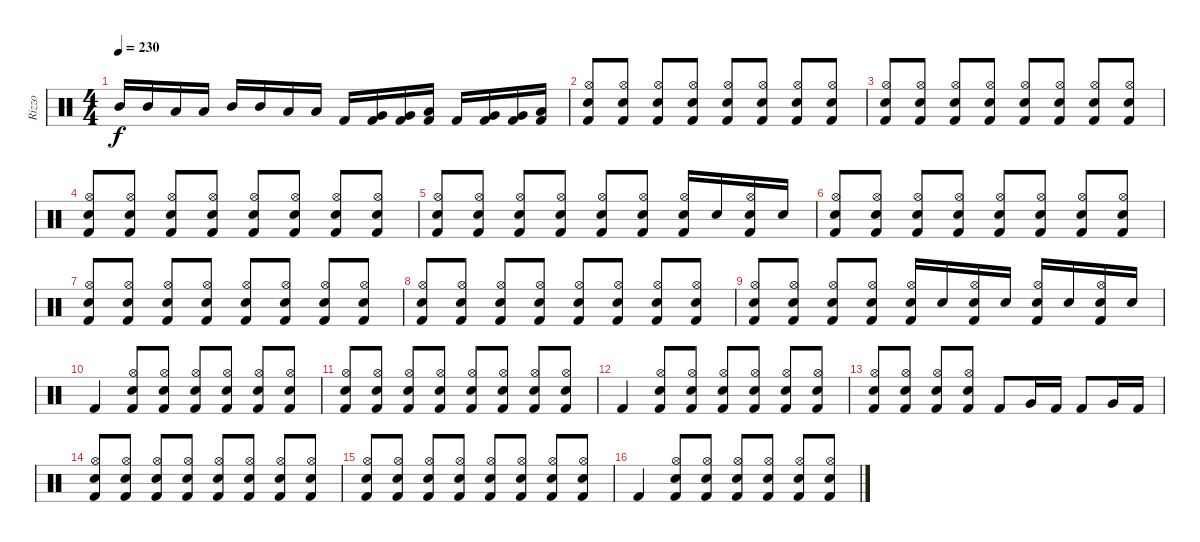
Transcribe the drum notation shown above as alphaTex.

\track ("Rizzo" "Rizzo") {instrument percussion}
\staff {score}
\articulation defaults
\ts (4 4)
\tempo 230
\clef neutral
\ks c "Mid Tom (hit)".16{dy f} "Mid Tom (hit)".16 "Low Tom (hit)".16 "Low Tom (hit)".16 "Mid Tom (hit)".16 "Mid Tom (hit)".16 "Low Tom (hit)".16 "Low Tom (hit)".16 "Kick (hit) 2".16
("Very Low Tom (hit)" "Kick (hit) 2").16 ("Very Low Tom (hit)" "Kick (hit) 2").16 ("Low Floor Tom (hit)" "Kick (hit) 2").16 "Kick (hit) 2".16 ("Very Low Tom (hit)" "Kick (hit) 2").16 ("Very Low Tom (hit)" "Kick (hit) 2").16 ("Low Floor Tom (hit)" "Kick (hit) 2").16 |
("Hi-Hat (open)" "Snare (hit) 2" "Kick (hit) 2").8 ("Hi-Hat (open)" "Snare (hit) 2" "Kick (hit) 2").8 ("Hi-Hat (open)" "Snare (hit) 2" "Kick (hit) 2").8 ("Hi-Hat (open)" "Snare (hit) 2" "Kick (hit) 2").8 ("Hi-Hat (open)" "Snare (hit) 2" "Kick (hit) 2").8 ("Hi-Hat (open)" "Snare (hit) 2" "Kick (hit) 2").8 ("Hi-Hat (open)" "Snare (hit) 2" "Kick (hit) 2").8 ("Hi-Hat (open)" "Snare (hit) 2" "Kick (hit) 2").8 |
("Hi-Hat (open)" "Snare (hit) 2" "Kick (hit) 2").8 ("Hi-Hat (open)" "Snare (hit) 2" "Kick (hit) 2").8 ("Hi-Hat (open)" "Snare (hit) 2" "Kick (hit) 2").8 ("Hi-Hat (open)" "Snare (hit) 2" "Kick (hit) 2").8 ("Hi-Hat (open)" "Snare (hit) 2" "Kick (hit) 2").8 ("Hi-Hat (open)" "Snare (hit) 2" "Kick (hit) 2").8 ("Hi-Hat (open)" "Snare (hit) 2" "Kick (hit) 2").8 ("Hi-Hat (open)" "Snare (hit) 2" "Kick (hit) 2").8 |
("Hi-Hat (open)" "Snare (hit) 2" "Kick (hit) 2").8 ("Hi-Hat (open)" "Snare (hit) 2" "Kick (hit) 2").8 ("Hi-Hat (open)" "Snare (hit) 2" "Kick (hit) 2").8 ("Hi-Hat (open)" "Snare (hit) 2" "Kick (hit) 2").8 ("Hi-Hat (open)" "Snare (hit) 2" "Kick (hit) 2").8 ("Hi-Hat (open)" "Snare (hit) 2" "Kick (hit) 2").8 ("Hi-Hat (open)" "Snare (hit) 2" "Kick (hit) 2").8 ("Hi-Hat (open)" "Snare (hit) 2" "Kick (hit) 2").8 |
("Hi-Hat (open)" "Snare (hit) 2" "Kick (hit) 2").8 ("Hi-Hat (open)" "Snare (hit) 2" "Kick (hit) 2").8 ("Hi-Hat (open)" "Snare (hit) 2" "Kick (hit) 2").8 ("Hi-Hat (open)" "Snare (hit) 2" "Kick (hit) 2").8 ("Hi-Hat (open)" "Snare (hit) 2" "Kick (hit) 2").8 ("Hi-Hat (open)" "Snare (hit) 2" "Kick (hit) 2").8 ("Hi-Hat (open)" "Snare (hit) 2" "Kick (hit) 2").16 "Snare (hit) 2".16 ("Hi-Hat (open)" "Snare (hit) 2" "Kick (hit) 2").16 "Snare (hit) 2".16 |
("Hi-Hat (open)" "Snare (hit) 2" "Kick (hit) 2").8 ("Hi-Hat (open)" "Snare (hit) 2" "Kick (hit) 2").8 ("Hi-Hat (open)" "Snare (hit) 2" "Kick (hit) 2").8 ("Hi-Hat (open)" "Snare (hit) 2" "Kick (hit) 2").8 ("Hi-Hat (open)" "Snare (hit) 2" "Kick (hit) 2").8 ("Hi-Hat (open)" "Snare (hit) 2" "Kick (hit) 2").8 ("Hi-Hat (open)" "Snare (hit) 2" "Kick (hit) 2").8 ("Hi-Hat (open)" "Snare (hit) 2" "Kick (hit) 2").8 |
("Hi-Hat (open)" "Snare (hit) 2" "Kick (hit) 2").8 ("Hi-Hat (open)" "Snare (hit) 2" "Kick (hit) 2").8 ("Hi-Hat (open)" "Snare (hit) 2" "Kick (hit) 2").8 ("Hi-Hat (open)" "Snare (hit) 2" "Kick (hit) 2").8 ("Hi-Hat (open)" "Snare (hit) 2" "Kick (hit) 2").8 ("Hi-Hat (open)" "Snare (hit) 2" "Kick (hit) 2").8 ("Hi-Hat (open)" "Snare (hit) 2" "Kick (hit) 2").8 ("Hi-Hat (open)" "Snare (hit) 2" "Kick (hit) 2").8 |
("Hi-Hat (open)" "Snare (hit) 2" "Kick (hit) 2").8 ("Hi-Hat (open)" "Snare (hit) 2" "Kick (hit) 2").8 ("Hi-Hat (open)" "Snare (hit) 2" "Kick (hit) 2").8 ("Hi-Hat (open)" "Snare (hit) 2" "Kick (hit) 2").8 ("Hi-Hat (open)" "Snare (hit) 2" "Kick (hit) 2").8 ("Hi-Hat (open)" "Snare (hit) 2" "Kick (hit) 2").8 ("Hi-Hat (open)" "Snare (hit) 2" "Kick (hit) 2").8 ("Hi-Hat (open)" "Snare (hit) 2" "Kick (hit) 2").8 |
("Hi-Hat (open)" "Snare (hit) 2" "Kick (hit) 2").8 ("Hi-Hat (open)" "Snare (hit) 2" "Kick (hit) 2").8 ("Hi-Hat (open)" "Snare (hit) 2" "Kick (hit) 2").8 ("Hi-Hat (open)" "Snare (hit) 2" "Kick (hit) 2").8 ("Hi-Hat (open)" "Snare (hit) 2" "Kick (hit) 2").16 "Snare (hit) 2".16 ("Hi-Hat (open)" "Snare (hit) 2" "Kick (hit) 2").16 "Snare (hit) 2".16 ("Hi-Hat (open)" "Snare (hit) 2" "Kick (hit) 2").16 "Snare (hit) 2".16 ("Hi-Hat (open)" "Snare (hit) 2" "Kick (hit) 2").16 "Snare (hit) 2".16 |
"Kick (hit) 2".4 ("Hi-Hat (open)" "Snare (hit) 2" "Kick (hit) 2").8 ("Hi-Hat (open)" "Snare (hit) 2" "Kick (hit) 2").8 ("Hi-Hat (open)" "Snare (hit) 2" "Kick (hit) 2").8 ("Hi-Hat (open)" "Snare (hit) 2" "Kick (hit) 2").8 ("Hi-Hat (open)" "Snare (hit) 2" "Kick (hit) 2").8 ("Hi-Hat (open)" "Snare (hit) 2" "Kick (hit) 2").8 |
("Hi-Hat (open)" "Snare (hit) 2" "Kick (hit) 2").8 ("Hi-Hat (open)" "Snare (hit) 2" "Kick (hit) 2").8 ("Hi-Hat (open)" "Snare (hit) 2" "Kick (hit) 2").8 ("Hi-Hat (open)" "Snare (hit) 2" "Kick (hit) 2").8 ("Hi-Hat (open)" "Snare (hit) 2" "Kick (hit) 2").8 ("Hi-Hat (open)" "Snare (hit) 2" "Kick (hit) 2").8 ("Hi-Hat (open)" "Snare (hit) 2" "Kick (hit) 2").8 ("Hi-Hat (open)" "Snare (hit) 2" "Kick (hit) 2").8 |
"Kick (hit) 2".4 ("Hi-Hat (open)" "Snare (hit) 2" "Kick (hit) 2").8 ("Hi-Hat (open)" "Snare (hit) 2" "Kick (hit) 2").8 ("Hi-Hat (open)" "Snare (hit) 2" "Kick (hit) 2").8 ("Hi-Hat (open)" "Snare (hit) 2" "Kick (hit) 2").8 ("Hi-Hat (open)" "Snare (hit) 2" "Kick (hit) 2").8 ("Hi-Hat (open)" "Snare (hit) 2" "Kick (hit) 2").8 |
("Hi-Hat (open)" "Snare (hit) 2" "Kick (hit) 2").8 ("Hi-Hat (open)" "Snare (hit) 2" "Kick (hit) 2").8 ("Hi-Hat (open)" "Snare (hit) 2" "Kick (hit) 2").8 ("Hi-Hat (open)" "Snare (hit) 2" "Kick (hit) 2").8 "Kick (hit) 2".8 "Very Low Tom (hit)".16 "Kick (hit) 2".16 "Kick (hit) 2".8 "Very Low Tom (hit)".16 "Kick (hit) 2".16 |
("Hi-Hat (open)" "Snare (hit) 2" "Kick (hit) 2").8 ("Hi-Hat (open)" "Snare (hit) 2" "Kick (hit) 2").8 ("Hi-Hat (open)" "Snare (hit) 2" "Kick (hit) 2").8 ("Hi-Hat (open)" "Snare (hit) 2" "Kick (hit) 2").8 ("Hi-Hat (open)" "Snare (hit) 2" "Kick (hit) 2").8 ("Hi-Hat (open)" "Snare (hit) 2" "Kick (hit) 2").8 ("Hi-Hat (open)" "Snare (hit) 2" "Kick (hit) 2").8 ("Hi-Hat (open)" "Snare (hit) 2" "Kick (hit) 2").8 |
("Hi-Hat (open)" "Snare (hit) 2" "Kick (hit) 2").8 ("Hi-Hat (open)" "Snare (hit) 2" "Kick (hit) 2").8 ("Hi-Hat (open)" "Snare (hit) 2" "Kick (hit) 2").8 ("Hi-Hat (open)" "Snare (hit) 2" "Kick (hit) 2").8 ("Hi-Hat (open)" "Snare (hit) 2" "Kick (hit) 2").8 ("Hi-Hat (open)" "Snare (hit) 2" "Kick (hit) 2").8 ("Hi-Hat (open)" "Snare (hit) 2" "Kick (hit) 2").8 ("Hi-Hat (open)" "Snare (hit) 2" "Kick (hit) 2").8 |
"Kick (hit) 2".4 ("Hi-Hat (open)" "Snare (hit) 2" "Kick (hit) 2").8 ("Hi-Hat (open)" "Snare (hit) 2" "Kick (hit) 2").8 ("Hi-Hat (open)" "Snare (hit) 2" "Kick (hit) 2").8 ("Hi-Hat (open)" "Snare (hit) 2" "Kick (hit) 2").8 ("Hi-Hat (open)" "Snare (hit) 2" "Kick (hit) 2").8 ("Hi-Hat (open)" "Snare (hit) 2" "Kick (hit) 2").8
